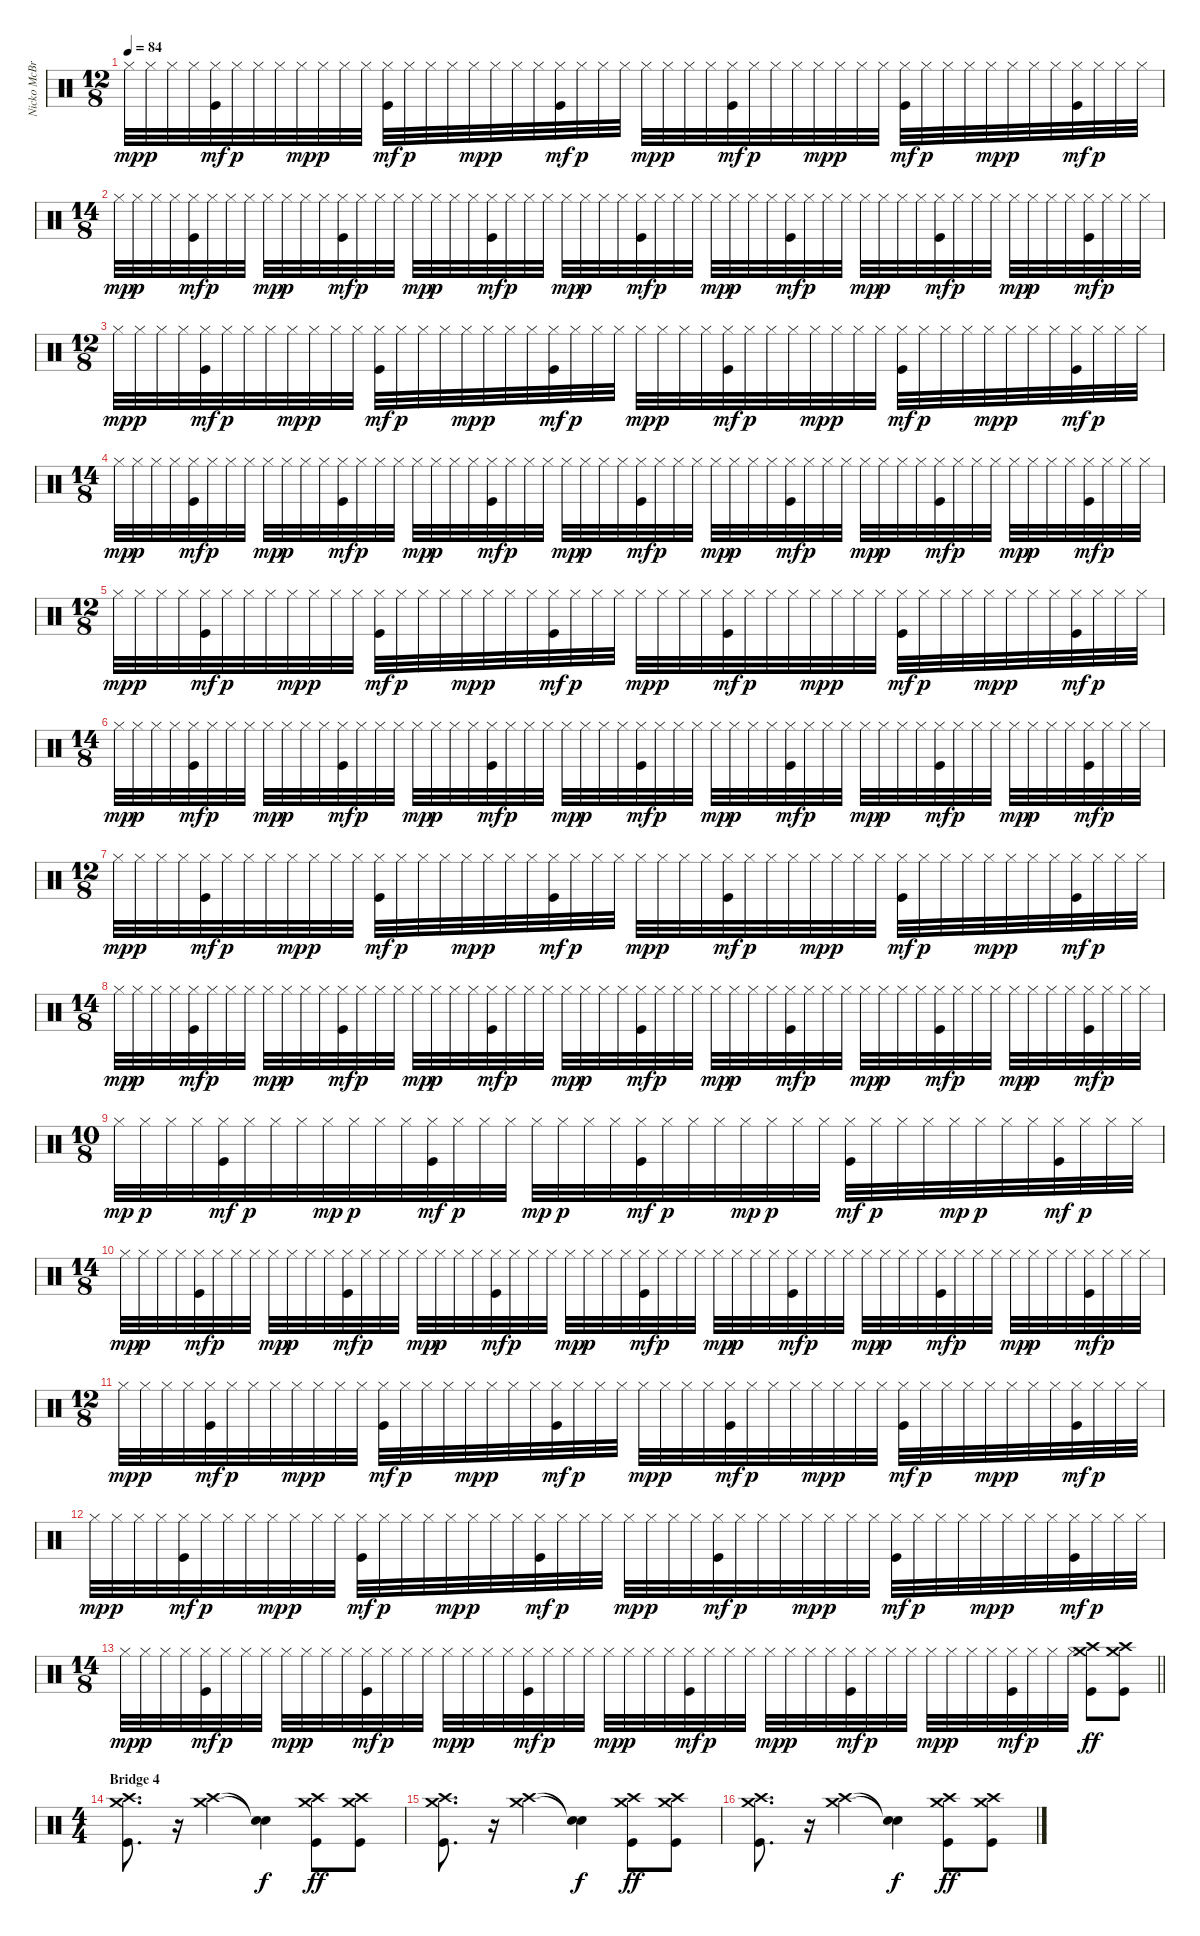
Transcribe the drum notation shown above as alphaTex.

\track ("Nicko McBrain" "Nicko McBr") {instrument percussion}
\staff {score}
\articulation defaults
\ts (12 8)
\tempo 84
\clef neutral
\ks c "Hi-Hat (closed)".32{dy mp} "Hi-Hat (closed)".32{dy p} "Hi-Hat (closed)".32 "Hi-Hat (closed)".32
("Hi-Hat (closed)" "Kick (hit)").32{dy mf} "Hi-Hat (closed)".32{dy p} "Hi-Hat (closed)".32 "Hi-Hat (closed)".32 "Hi-Hat (closed)".32{dy mp} "Hi-Hat (closed)".32{dy p} "Hi-Hat (closed)".32 "Hi-Hat (closed)".32 ("Hi-Hat (closed)" "Kick (hit)").32{dy mf} "Hi-Hat (closed)".32{dy p} "Hi-Hat (closed)".32 "Hi-Hat (closed)".32 "Hi-Hat (closed)".32{dy mp} "Hi-Hat (closed)".32{dy p} "Hi-Hat (closed)".32 "Hi-Hat (closed)".32 ("Hi-Hat (closed)" "Kick (hit)").32{dy mf} "Hi-Hat (closed)".32{dy p} "Hi-Hat (closed)".32 "Hi-Hat (closed)".32 "Hi-Hat (closed)".32{dy mp} "Hi-Hat (closed)".32{dy p} "Hi-Hat (closed)".32 "Hi-Hat (closed)".32 ("Hi-Hat (closed)" "Kick (hit)").32{dy mf} "Hi-Hat (closed)".32{dy p} "Hi-Hat (closed)".32 "Hi-Hat (closed)".32 "Hi-Hat (closed)".32{dy mp} "Hi-Hat (closed)".32{dy p} "Hi-Hat (closed)".32 "Hi-Hat (closed)".32 ("Hi-Hat (closed)" "Kick (hit)").32{dy mf} "Hi-Hat (closed)".32{dy p} "Hi-Hat (closed)".32 "Hi-Hat (closed)".32 "Hi-Hat (closed)".32{dy mp} "Hi-Hat (closed)".32{dy p} "Hi-Hat (closed)".32 "Hi-Hat (closed)".32 ("Hi-Hat (closed)" "Kick (hit)").32{dy mf} "Hi-Hat (closed)".32{dy p} "Hi-Hat (closed)".32 "Hi-Hat (closed)".32 |
\ts (14 8)
"Hi-Hat (closed)".32{dy mp} "Hi-Hat (closed)".32{dy p} "Hi-Hat (closed)".32 "Hi-Hat (closed)".32 ("Hi-Hat (closed)" "Kick (hit)").32{dy mf} "Hi-Hat (closed)".32{dy p} "Hi-Hat (closed)".32 "Hi-Hat (closed)".32 "Hi-Hat (closed)".32{dy mp} "Hi-Hat (closed)".32{dy p} "Hi-Hat (closed)".32 "Hi-Hat (closed)".32 ("Hi-Hat (closed)" "Kick (hit)").32{dy mf} "Hi-Hat (closed)".32{dy p} "Hi-Hat (closed)".32 "Hi-Hat (closed)".32 "Hi-Hat (closed)".32{dy mp} "Hi-Hat (closed)".32{dy p} "Hi-Hat (closed)".32 "Hi-Hat (closed)".32 ("Hi-Hat (closed)" "Kick (hit)").32{dy mf} "Hi-Hat (closed)".32{dy p} "Hi-Hat (closed)".32 "Hi-Hat (closed)".32 "Hi-Hat (closed)".32{dy mp} "Hi-Hat (closed)".32{dy p} "Hi-Hat (closed)".32 "Hi-Hat (closed)".32 ("Hi-Hat (closed)" "Kick (hit)").32{dy mf} "Hi-Hat (closed)".32{dy p} "Hi-Hat (closed)".32 "Hi-Hat (closed)".32 "Hi-Hat (closed)".32{dy mp} "Hi-Hat (closed)".32{dy p} "Hi-Hat (closed)".32 "Hi-Hat (closed)".32 ("Hi-Hat (closed)" "Kick (hit)").32{dy mf} "Hi-Hat (closed)".32{dy p} "Hi-Hat (closed)".32 "Hi-Hat (closed)".32 "Hi-Hat (closed)".32{dy mp} "Hi-Hat (closed)".32{dy p} "Hi-Hat (closed)".32 "Hi-Hat (closed)".32 ("Hi-Hat (closed)" "Kick (hit)").32{dy mf} "Hi-Hat (closed)".32{dy p} "Hi-Hat (closed)".32 "Hi-Hat (closed)".32 "Hi-Hat (closed)".32{dy mp} "Hi-Hat (closed)".32{dy p} "Hi-Hat (closed)".32 "Hi-Hat (closed)".32 ("Hi-Hat (closed)" "Kick (hit)").32{dy mf} "Hi-Hat (closed)".32{dy p} "Hi-Hat (closed)".32 "Hi-Hat (closed)".32 |
\ts (12 8)
"Hi-Hat (closed)".32{dy mp} "Hi-Hat (closed)".32{dy p} "Hi-Hat (closed)".32 "Hi-Hat (closed)".32 ("Hi-Hat (closed)" "Kick (hit)").32{dy mf} "Hi-Hat (closed)".32{dy p} "Hi-Hat (closed)".32 "Hi-Hat (closed)".32 "Hi-Hat (closed)".32{dy mp} "Hi-Hat (closed)".32{dy p} "Hi-Hat (closed)".32 "Hi-Hat (closed)".32 ("Hi-Hat (closed)" "Kick (hit)").32{dy mf} "Hi-Hat (closed)".32{dy p} "Hi-Hat (closed)".32 "Hi-Hat (closed)".32 "Hi-Hat (closed)".32{dy mp} "Hi-Hat (closed)".32{dy p} "Hi-Hat (closed)".32 "Hi-Hat (closed)".32 ("Hi-Hat (closed)" "Kick (hit)").32{dy mf} "Hi-Hat (closed)".32{dy p} "Hi-Hat (closed)".32 "Hi-Hat (closed)".32 "Hi-Hat (closed)".32{dy mp} "Hi-Hat (closed)".32{dy p} "Hi-Hat (closed)".32 "Hi-Hat (closed)".32 ("Hi-Hat (closed)" "Kick (hit)").32{dy mf} "Hi-Hat (closed)".32{dy p} "Hi-Hat (closed)".32 "Hi-Hat (closed)".32 "Hi-Hat (closed)".32{dy mp} "Hi-Hat (closed)".32{dy p} "Hi-Hat (closed)".32 "Hi-Hat (closed)".32 ("Hi-Hat (closed)" "Kick (hit)").32{dy mf} "Hi-Hat (closed)".32{dy p} "Hi-Hat (closed)".32 "Hi-Hat (closed)".32 "Hi-Hat (closed)".32{dy mp} "Hi-Hat (closed)".32{dy p} "Hi-Hat (closed)".32 "Hi-Hat (closed)".32 ("Hi-Hat (closed)" "Kick (hit)").32{dy mf} "Hi-Hat (closed)".32{dy p} "Hi-Hat (closed)".32 "Hi-Hat (closed)".32 |
\ts (14 8)
"Hi-Hat (closed)".32{dy mp} "Hi-Hat (closed)".32{dy p} "Hi-Hat (closed)".32 "Hi-Hat (closed)".32 ("Hi-Hat (closed)" "Kick (hit)").32{dy mf} "Hi-Hat (closed)".32{dy p} "Hi-Hat (closed)".32 "Hi-Hat (closed)".32 "Hi-Hat (closed)".32{dy mp} "Hi-Hat (closed)".32{dy p} "Hi-Hat (closed)".32 "Hi-Hat (closed)".32 ("Hi-Hat (closed)" "Kick (hit)").32{dy mf} "Hi-Hat (closed)".32{dy p} "Hi-Hat (closed)".32 "Hi-Hat (closed)".32 "Hi-Hat (closed)".32{dy mp} "Hi-Hat (closed)".32{dy p} "Hi-Hat (closed)".32 "Hi-Hat (closed)".32 ("Hi-Hat (closed)" "Kick (hit)").32{dy mf} "Hi-Hat (closed)".32{dy p} "Hi-Hat (closed)".32 "Hi-Hat (closed)".32 "Hi-Hat (closed)".32{dy mp} "Hi-Hat (closed)".32{dy p} "Hi-Hat (closed)".32 "Hi-Hat (closed)".32 ("Hi-Hat (closed)" "Kick (hit)").32{dy mf} "Hi-Hat (closed)".32{dy p} "Hi-Hat (closed)".32 "Hi-Hat (closed)".32 "Hi-Hat (closed)".32{dy mp} "Hi-Hat (closed)".32{dy p} "Hi-Hat (closed)".32 "Hi-Hat (closed)".32 ("Hi-Hat (closed)" "Kick (hit)").32{dy mf} "Hi-Hat (closed)".32{dy p} "Hi-Hat (closed)".32 "Hi-Hat (closed)".32 "Hi-Hat (closed)".32{dy mp} "Hi-Hat (closed)".32{dy p} "Hi-Hat (closed)".32 "Hi-Hat (closed)".32 ("Hi-Hat (closed)" "Kick (hit)").32{dy mf} "Hi-Hat (closed)".32{dy p} "Hi-Hat (closed)".32 "Hi-Hat (closed)".32 "Hi-Hat (closed)".32{dy mp} "Hi-Hat (closed)".32{dy p} "Hi-Hat (closed)".32 "Hi-Hat (closed)".32 ("Hi-Hat (closed)" "Kick (hit)").32{dy mf} "Hi-Hat (closed)".32{dy p} "Hi-Hat (closed)".32 "Hi-Hat (closed)".32 |
\ts (12 8)
"Hi-Hat (closed)".32{dy mp} "Hi-Hat (closed)".32{dy p} "Hi-Hat (closed)".32 "Hi-Hat (closed)".32 ("Hi-Hat (closed)" "Kick (hit)").32{dy mf} "Hi-Hat (closed)".32{dy p} "Hi-Hat (closed)".32 "Hi-Hat (closed)".32 "Hi-Hat (closed)".32{dy mp} "Hi-Hat (closed)".32{dy p} "Hi-Hat (closed)".32 "Hi-Hat (closed)".32 ("Hi-Hat (closed)" "Kick (hit)").32{dy mf} "Hi-Hat (closed)".32{dy p} "Hi-Hat (closed)".32 "Hi-Hat (closed)".32 "Hi-Hat (closed)".32{dy mp} "Hi-Hat (closed)".32{dy p} "Hi-Hat (closed)".32 "Hi-Hat (closed)".32 ("Hi-Hat (closed)" "Kick (hit)").32{dy mf} "Hi-Hat (closed)".32{dy p} "Hi-Hat (closed)".32 "Hi-Hat (closed)".32 "Hi-Hat (closed)".32{dy mp} "Hi-Hat (closed)".32{dy p} "Hi-Hat (closed)".32 "Hi-Hat (closed)".32 ("Hi-Hat (closed)" "Kick (hit)").32{dy mf} "Hi-Hat (closed)".32{dy p} "Hi-Hat (closed)".32 "Hi-Hat (closed)".32 "Hi-Hat (closed)".32{dy mp} "Hi-Hat (closed)".32{dy p} "Hi-Hat (closed)".32 "Hi-Hat (closed)".32 ("Hi-Hat (closed)" "Kick (hit)").32{dy mf} "Hi-Hat (closed)".32{dy p} "Hi-Hat (closed)".32 "Hi-Hat (closed)".32 "Hi-Hat (closed)".32{dy mp} "Hi-Hat (closed)".32{dy p} "Hi-Hat (closed)".32 "Hi-Hat (closed)".32 ("Hi-Hat (closed)" "Kick (hit)").32{dy mf} "Hi-Hat (closed)".32{dy p} "Hi-Hat (closed)".32 "Hi-Hat (closed)".32 |
\ts (14 8)
"Hi-Hat (closed)".32{dy mp} "Hi-Hat (closed)".32{dy p} "Hi-Hat (closed)".32 "Hi-Hat (closed)".32 ("Hi-Hat (closed)" "Kick (hit)").32{dy mf} "Hi-Hat (closed)".32{dy p} "Hi-Hat (closed)".32 "Hi-Hat (closed)".32 "Hi-Hat (closed)".32{dy mp} "Hi-Hat (closed)".32{dy p} "Hi-Hat (closed)".32 "Hi-Hat (closed)".32 ("Hi-Hat (closed)" "Kick (hit)").32{dy mf} "Hi-Hat (closed)".32{dy p} "Hi-Hat (closed)".32 "Hi-Hat (closed)".32 "Hi-Hat (closed)".32{dy mp} "Hi-Hat (closed)".32{dy p} "Hi-Hat (closed)".32 "Hi-Hat (closed)".32 ("Hi-Hat (closed)" "Kick (hit)").32{dy mf} "Hi-Hat (closed)".32{dy p} "Hi-Hat (closed)".32 "Hi-Hat (closed)".32 "Hi-Hat (closed)".32{dy mp} "Hi-Hat (closed)".32{dy p} "Hi-Hat (closed)".32 "Hi-Hat (closed)".32 ("Hi-Hat (closed)" "Kick (hit)").32{dy mf} "Hi-Hat (closed)".32{dy p} "Hi-Hat (closed)".32 "Hi-Hat (closed)".32 "Hi-Hat (closed)".32{dy mp} "Hi-Hat (closed)".32{dy p} "Hi-Hat (closed)".32 "Hi-Hat (closed)".32 ("Hi-Hat (closed)" "Kick (hit)").32{dy mf} "Hi-Hat (closed)".32{dy p} "Hi-Hat (closed)".32 "Hi-Hat (closed)".32 "Hi-Hat (closed)".32{dy mp} "Hi-Hat (closed)".32{dy p} "Hi-Hat (closed)".32 "Hi-Hat (closed)".32 ("Hi-Hat (closed)" "Kick (hit)").32{dy mf} "Hi-Hat (closed)".32{dy p} "Hi-Hat (closed)".32 "Hi-Hat (closed)".32 "Hi-Hat (closed)".32{dy mp} "Hi-Hat (closed)".32{dy p} "Hi-Hat (closed)".32 "Hi-Hat (closed)".32 ("Hi-Hat (closed)" "Kick (hit)").32{dy mf} "Hi-Hat (closed)".32{dy p} "Hi-Hat (closed)".32 "Hi-Hat (closed)".32 |
\ts (12 8)
"Hi-Hat (closed)".32{dy mp} "Hi-Hat (closed)".32{dy p} "Hi-Hat (closed)".32 "Hi-Hat (closed)".32 ("Hi-Hat (closed)" "Kick (hit)").32{dy mf} "Hi-Hat (closed)".32{dy p} "Hi-Hat (closed)".32 "Hi-Hat (closed)".32 "Hi-Hat (closed)".32{dy mp} "Hi-Hat (closed)".32{dy p} "Hi-Hat (closed)".32 "Hi-Hat (closed)".32 ("Hi-Hat (closed)" "Kick (hit)").32{dy mf} "Hi-Hat (closed)".32{dy p} "Hi-Hat (closed)".32 "Hi-Hat (closed)".32 "Hi-Hat (closed)".32{dy mp} "Hi-Hat (closed)".32{dy p} "Hi-Hat (closed)".32 "Hi-Hat (closed)".32 ("Hi-Hat (closed)" "Kick (hit)").32{dy mf} "Hi-Hat (closed)".32{dy p} "Hi-Hat (closed)".32 "Hi-Hat (closed)".32 "Hi-Hat (closed)".32{dy mp} "Hi-Hat (closed)".32{dy p} "Hi-Hat (closed)".32 "Hi-Hat (closed)".32 ("Hi-Hat (closed)" "Kick (hit)").32{dy mf} "Hi-Hat (closed)".32{dy p} "Hi-Hat (closed)".32 "Hi-Hat (closed)".32 "Hi-Hat (closed)".32{dy mp} "Hi-Hat (closed)".32{dy p} "Hi-Hat (closed)".32 "Hi-Hat (closed)".32 ("Hi-Hat (closed)" "Kick (hit)").32{dy mf} "Hi-Hat (closed)".32{dy p} "Hi-Hat (closed)".32 "Hi-Hat (closed)".32 "Hi-Hat (closed)".32{dy mp} "Hi-Hat (closed)".32{dy p} "Hi-Hat (closed)".32 "Hi-Hat (closed)".32 ("Hi-Hat (closed)" "Kick (hit)").32{dy mf} "Hi-Hat (closed)".32{dy p} "Hi-Hat (closed)".32 "Hi-Hat (closed)".32 |
\ts (14 8)
"Hi-Hat (closed)".32{dy mp} "Hi-Hat (closed)".32{dy p} "Hi-Hat (closed)".32 "Hi-Hat (closed)".32 ("Hi-Hat (closed)" "Kick (hit)").32{dy mf} "Hi-Hat (closed)".32{dy p} "Hi-Hat (closed)".32 "Hi-Hat (closed)".32 "Hi-Hat (closed)".32{dy mp} "Hi-Hat (closed)".32{dy p} "Hi-Hat (closed)".32 "Hi-Hat (closed)".32 ("Hi-Hat (closed)" "Kick (hit)").32{dy mf} "Hi-Hat (closed)".32{dy p} "Hi-Hat (closed)".32 "Hi-Hat (closed)".32 "Hi-Hat (closed)".32{dy mp} "Hi-Hat (closed)".32{dy p} "Hi-Hat (closed)".32 "Hi-Hat (closed)".32 ("Hi-Hat (closed)" "Kick (hit)").32{dy mf} "Hi-Hat (closed)".32{dy p} "Hi-Hat (closed)".32 "Hi-Hat (closed)".32 "Hi-Hat (closed)".32{dy mp} "Hi-Hat (closed)".32{dy p} "Hi-Hat (closed)".32 "Hi-Hat (closed)".32 ("Hi-Hat (closed)" "Kick (hit)").32{dy mf} "Hi-Hat (closed)".32{dy p} "Hi-Hat (closed)".32 "Hi-Hat (closed)".32 "Hi-Hat (closed)".32{dy mp} "Hi-Hat (closed)".32{dy p} "Hi-Hat (closed)".32 "Hi-Hat (closed)".32 ("Hi-Hat (closed)" "Kick (hit)").32{dy mf} "Hi-Hat (closed)".32{dy p} "Hi-Hat (closed)".32 "Hi-Hat (closed)".32 "Hi-Hat (closed)".32{dy mp} "Hi-Hat (closed)".32{dy p} "Hi-Hat (closed)".32 "Hi-Hat (closed)".32 ("Hi-Hat (closed)" "Kick (hit)").32{dy mf} "Hi-Hat (closed)".32{dy p} "Hi-Hat (closed)".32 "Hi-Hat (closed)".32 "Hi-Hat (closed)".32{dy mp} "Hi-Hat (closed)".32{dy p} "Hi-Hat (closed)".32 "Hi-Hat (closed)".32 ("Hi-Hat (closed)" "Kick (hit)").32{dy mf} "Hi-Hat (closed)".32{dy p} "Hi-Hat (closed)".32 "Hi-Hat (closed)".32 |
\ts (10 8)
"Hi-Hat (closed)".32{dy mp} "Hi-Hat (closed)".32{dy p} "Hi-Hat (closed)".32 "Hi-Hat (closed)".32 ("Hi-Hat (closed)" "Kick (hit)").32{dy mf} "Hi-Hat (closed)".32{dy p} "Hi-Hat (closed)".32 "Hi-Hat (closed)".32 "Hi-Hat (closed)".32{dy mp} "Hi-Hat (closed)".32{dy p} "Hi-Hat (closed)".32 "Hi-Hat (closed)".32 ("Hi-Hat (closed)" "Kick (hit)").32{dy mf} "Hi-Hat (closed)".32{dy p} "Hi-Hat (closed)".32 "Hi-Hat (closed)".32 "Hi-Hat (closed)".32{dy mp} "Hi-Hat (closed)".32{dy p} "Hi-Hat (closed)".32 "Hi-Hat (closed)".32 ("Hi-Hat (closed)" "Kick (hit)").32{dy mf} "Hi-Hat (closed)".32{dy p} "Hi-Hat (closed)".32 "Hi-Hat (closed)".32 "Hi-Hat (closed)".32{dy mp} "Hi-Hat (closed)".32{dy p} "Hi-Hat (closed)".32 "Hi-Hat (closed)".32 ("Hi-Hat (closed)" "Kick (hit)").32{dy mf} "Hi-Hat (closed)".32{dy p} "Hi-Hat (closed)".32 "Hi-Hat (closed)".32 "Hi-Hat (closed)".32{dy mp} "Hi-Hat (closed)".32{dy p} "Hi-Hat (closed)".32 "Hi-Hat (closed)".32 ("Hi-Hat (closed)" "Kick (hit)").32{dy mf} "Hi-Hat (closed)".32{dy p} "Hi-Hat (closed)".32 "Hi-Hat (closed)".32 |
\ts (14 8)
"Hi-Hat (closed)".32{dy mp} "Hi-Hat (closed)".32{dy p} "Hi-Hat (closed)".32 "Hi-Hat (closed)".32 ("Hi-Hat (closed)" "Kick (hit)").32{dy mf} "Hi-Hat (closed)".32{dy p} "Hi-Hat (closed)".32 "Hi-Hat (closed)".32 "Hi-Hat (closed)".32{dy mp} "Hi-Hat (closed)".32{dy p} "Hi-Hat (closed)".32 "Hi-Hat (closed)".32 ("Hi-Hat (closed)" "Kick (hit)").32{dy mf} "Hi-Hat (closed)".32{dy p} "Hi-Hat (closed)".32 "Hi-Hat (closed)".32 "Hi-Hat (closed)".32{dy mp} "Hi-Hat (closed)".32{dy p} "Hi-Hat (closed)".32 "Hi-Hat (closed)".32 ("Hi-Hat (closed)" "Kick (hit)").32{dy mf} "Hi-Hat (closed)".32{dy p} "Hi-Hat (closed)".32 "Hi-Hat (closed)".32 "Hi-Hat (closed)".32{dy mp} "Hi-Hat (closed)".32{dy p} "Hi-Hat (closed)".32 "Hi-Hat (closed)".32 ("Hi-Hat (closed)" "Kick (hit)").32{dy mf} "Hi-Hat (closed)".32{dy p} "Hi-Hat (closed)".32 "Hi-Hat (closed)".32 "Hi-Hat (closed)".32{dy mp} "Hi-Hat (closed)".32{dy p} "Hi-Hat (closed)".32 "Hi-Hat (closed)".32 ("Hi-Hat (closed)" "Kick (hit)").32{dy mf} "Hi-Hat (closed)".32{dy p} "Hi-Hat (closed)".32 "Hi-Hat (closed)".32 "Hi-Hat (closed)".32{dy mp} "Hi-Hat (closed)".32{dy p} "Hi-Hat (closed)".32 "Hi-Hat (closed)".32 ("Hi-Hat (closed)" "Kick (hit)").32{dy mf} "Hi-Hat (closed)".32{dy p} "Hi-Hat (closed)".32 "Hi-Hat (closed)".32 "Hi-Hat (closed)".32{dy mp} "Hi-Hat (closed)".32{dy p} "Hi-Hat (closed)".32 "Hi-Hat (closed)".32 ("Hi-Hat (closed)" "Kick (hit)").32{dy mf} "Hi-Hat (closed)".32{dy p} "Hi-Hat (closed)".32 "Hi-Hat (closed)".32 |
\ts (12 8)
"Hi-Hat (closed)".32{dy mp} "Hi-Hat (closed)".32{dy p} "Hi-Hat (closed)".32 "Hi-Hat (closed)".32 ("Hi-Hat (closed)" "Kick (hit)").32{dy mf} "Hi-Hat (closed)".32{dy p} "Hi-Hat (closed)".32 "Hi-Hat (closed)".32 "Hi-Hat (closed)".32{dy mp} "Hi-Hat (closed)".32{dy p} "Hi-Hat (closed)".32 "Hi-Hat (closed)".32 ("Hi-Hat (closed)" "Kick (hit)").32{dy mf} "Hi-Hat (closed)".32{dy p} "Hi-Hat (closed)".32 "Hi-Hat (closed)".32 "Hi-Hat (closed)".32{dy mp} "Hi-Hat (closed)".32{dy p} "Hi-Hat (closed)".32 "Hi-Hat (closed)".32 ("Hi-Hat (closed)" "Kick (hit)").32{dy mf} "Hi-Hat (closed)".32{dy p} "Hi-Hat (closed)".32 "Hi-Hat (closed)".32 "Hi-Hat (closed)".32{dy mp} "Hi-Hat (closed)".32{dy p} "Hi-Hat (closed)".32 "Hi-Hat (closed)".32 ("Hi-Hat (closed)" "Kick (hit)").32{dy mf} "Hi-Hat (closed)".32{dy p} "Hi-Hat (closed)".32 "Hi-Hat (closed)".32 "Hi-Hat (closed)".32{dy mp} "Hi-Hat (closed)".32{dy p} "Hi-Hat (closed)".32 "Hi-Hat (closed)".32 ("Hi-Hat (closed)" "Kick (hit)").32{dy mf} "Hi-Hat (closed)".32{dy p} "Hi-Hat (closed)".32 "Hi-Hat (closed)".32 "Hi-Hat (closed)".32{dy mp} "Hi-Hat (closed)".32{dy p} "Hi-Hat (closed)".32 "Hi-Hat (closed)".32 ("Hi-Hat (closed)" "Kick (hit)").32{dy mf} "Hi-Hat (closed)".32{dy p} "Hi-Hat (closed)".32 "Hi-Hat (closed)".32 |
"Hi-Hat (closed)".32{dy mp} "Hi-Hat (closed)".32{dy p} "Hi-Hat (closed)".32 "Hi-Hat (closed)".32 ("Hi-Hat (closed)" "Kick (hit)").32{dy mf} "Hi-Hat (closed)".32{dy p} "Hi-Hat (closed)".32 "Hi-Hat (closed)".32 "Hi-Hat (closed)".32{dy mp} "Hi-Hat (closed)".32{dy p} "Hi-Hat (closed)".32 "Hi-Hat (closed)".32 ("Hi-Hat (closed)" "Kick (hit)").32{dy mf} "Hi-Hat (closed)".32{dy p} "Hi-Hat (closed)".32 "Hi-Hat (closed)".32 "Hi-Hat (closed)".32{dy mp} "Hi-Hat (closed)".32{dy p} "Hi-Hat (closed)".32 "Hi-Hat (closed)".32 ("Hi-Hat (closed)" "Kick (hit)").32{dy mf} "Hi-Hat (closed)".32{dy p} "Hi-Hat (closed)".32 "Hi-Hat (closed)".32 "Hi-Hat (closed)".32{dy mp} "Hi-Hat (closed)".32{dy p} "Hi-Hat (closed)".32 "Hi-Hat (closed)".32 ("Hi-Hat (closed)" "Kick (hit)").32{dy mf} "Hi-Hat (closed)".32{dy p} "Hi-Hat (closed)".32 "Hi-Hat (closed)".32 "Hi-Hat (closed)".32{dy mp} "Hi-Hat (closed)".32{dy p} "Hi-Hat (closed)".32 "Hi-Hat (closed)".32 ("Hi-Hat (closed)" "Kick (hit)").32{dy mf} "Hi-Hat (closed)".32{dy p} "Hi-Hat (closed)".32 "Hi-Hat (closed)".32 "Hi-Hat (closed)".32{dy mp} "Hi-Hat (closed)".32{dy p} "Hi-Hat (closed)".32 "Hi-Hat (closed)".32 ("Hi-Hat (closed)" "Kick (hit)").32{dy mf} "Hi-Hat (closed)".32{dy p} "Hi-Hat (closed)".32 "Hi-Hat (closed)".32 |
\ts (14 8)
\barLineRight lightlight "Hi-Hat (closed)".32{dy mp} "Hi-Hat (closed)".32{dy p} "Hi-Hat (closed)".32 "Hi-Hat (closed)".32
("Hi-Hat (closed)" "Kick (hit)").32{dy mf} "Hi-Hat (closed)".32{dy p} "Hi-Hat (closed)".32 "Hi-Hat (closed)".32 "Hi-Hat (closed)".32{dy mp} "Hi-Hat (closed)".32{dy p} "Hi-Hat (closed)".32 "Hi-Hat (closed)".32 ("Hi-Hat (closed)" "Kick (hit)").32{dy mf} "Hi-Hat (closed)".32{dy p} "Hi-Hat (closed)".32 "Hi-Hat (closed)".32 "Hi-Hat (closed)".32{dy mp} "Hi-Hat (closed)".32{dy p} "Hi-Hat (closed)".32 "Hi-Hat (closed)".32 ("Hi-Hat (closed)" "Kick (hit)").32{dy mf} "Hi-Hat (closed)".32{dy p} "Hi-Hat (closed)".32 "Hi-Hat (closed)".32 "Hi-Hat (closed)".32{dy mp} "Hi-Hat (closed)".32{dy p} "Hi-Hat (closed)".32 "Hi-Hat (closed)".32 ("Hi-Hat (closed)" "Kick (hit)").32{dy mf} "Hi-Hat (closed)".32{dy p} "Hi-Hat (closed)".32 "Hi-Hat (closed)".32 "Hi-Hat (closed)".32{dy mp} "Hi-Hat (closed)".32{dy p} "Hi-Hat (closed)".32 "Hi-Hat (closed)".32 ("Hi-Hat (closed)" "Kick (hit)").32{dy mf} "Hi-Hat (closed)".32{dy p} "Hi-Hat (closed)".32 "Hi-Hat (closed)".32 "Hi-Hat (closed)".32{dy mp} "Hi-Hat (closed)".32{dy p} "Hi-Hat (closed)".32 "Hi-Hat (closed)".32 ("Hi-Hat (closed)" "Kick (hit)").32{dy mf} "Hi-Hat (closed)".32{dy p} "Hi-Hat (closed)".32 "Hi-Hat (closed)".32 ("Crash medium (hit)" "Crash high (hit)" "Kick (hit)").8{dy ff} ("Crash medium (hit)" "Crash high (hit)" "Kick (hit)").8 |
\ts (4 4)
\section ("" "Bridge 4")
("Crash high (hit)" "Crash medium (hit)" "Kick (hit)").8{d} r.16{volume 0} ("Crash high (hit)" "Crash medium (hit)").4{volume 14} ("Snare (hit)"{t} "Snare (hit)"{t}).4{dy f} ("Crash medium (hit)" "Crash high (hit)" "Kick (hit)").8{dy ff} ("Crash medium (hit)" "Crash high (hit)" "Kick (hit)").8 |
("Crash high (hit)" "Crash medium (hit)" "Kick (hit)").8{d} r.16{volume 0} ("Crash high (hit)" "Crash medium (hit)").4{volume 14} ("Snare (hit)"{t} "Snare (hit)"{t}).4{dy f} ("Crash medium (hit)" "Crash high (hit)" "Kick (hit)").8{dy ff} ("Crash medium (hit)" "Crash high (hit)" "Kick (hit)").8 |
("Crash high (hit)" "Crash medium (hit)" "Kick (hit)").8{d} r.16{volume 0} ("Crash high (hit)" "Crash medium (hit)").4{volume 14} ("Snare (hit)"{t} "Snare (hit)"{t}).4{dy f} ("Crash medium (hit)" "Crash high (hit)" "Kick (hit)").8{dy ff} ("Crash medium (hit)" "Crash high (hit)" "Kick (hit)").8
